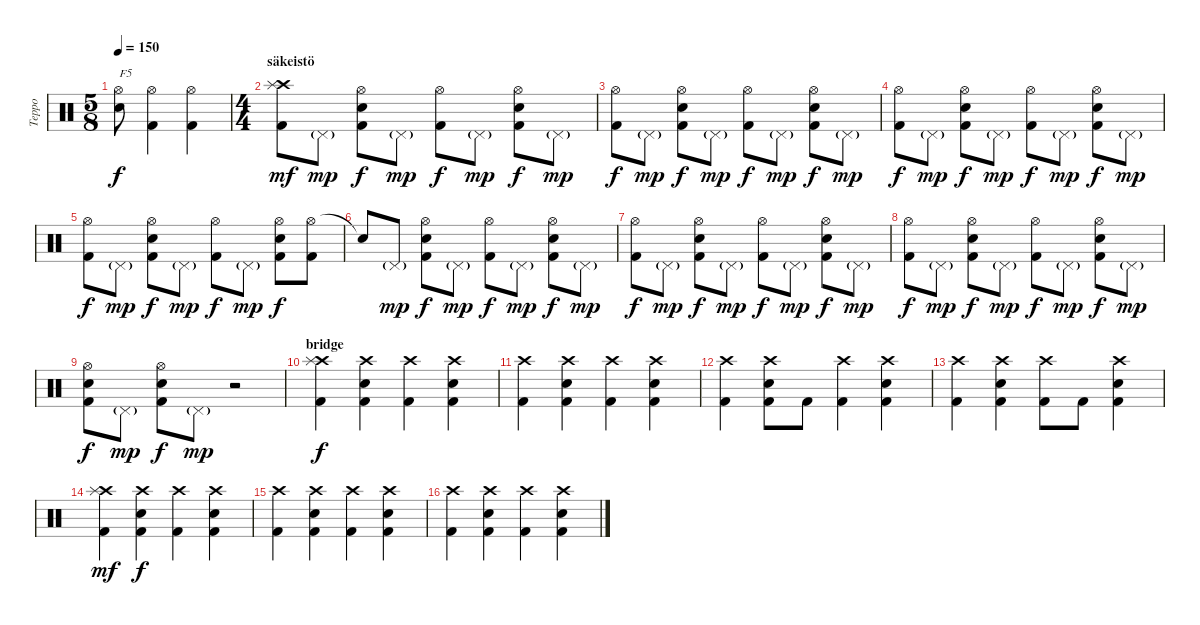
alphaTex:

\track ("Teppo" "Teppo") {instrument percussion}
\staff {score}
\articulation defaults
\ts (5 8)
\tempo 150
\clef neutral
\ks c
("Hi-Hat (open)" "Electric Snare (hit)").8{txt "F5" dy f} ("Hi-Hat (open)" "Kick (hit) 2").4 ("Hi-Hat (open)" "Kick (hit) 2").4 |
\ts (4 4)
\section ("" "säkeistö")
("Crash high (hit)" "Splash (hit)" "Kick (hit) 2").8{dy mf} "Pedal Hi-Hat (hit)"{g}.8{dy mp} ("Hi-Hat (open)" "Electric Snare (hit)" "Kick (hit) 2").8{dy f} "Pedal Hi-Hat (hit)"{g}.8{dy mp} ("Hi-Hat (open)" "Kick (hit) 2").8{dy f} "Pedal Hi-Hat (hit)"{g}.8{dy mp} ("Hi-Hat (open)" "Electric Snare (hit)" "Kick (hit) 2").8{dy f} "Pedal Hi-Hat (hit)"{g}.8{dy mp} |
("Hi-Hat (open)" "Kick (hit) 2").8{dy f} "Pedal Hi-Hat (hit)"{g}.8{dy mp} ("Hi-Hat (open)" "Electric Snare (hit)" "Kick (hit) 2").8{dy f} "Pedal Hi-Hat (hit)"{g}.8{dy mp} ("Hi-Hat (open)" "Kick (hit) 2").8{dy f} "Pedal Hi-Hat (hit)"{g}.8{dy mp} ("Hi-Hat (open)" "Electric Snare (hit)" "Kick (hit) 2").8{dy f} "Pedal Hi-Hat (hit)"{g}.8{dy mp} |
("Hi-Hat (open)" "Kick (hit) 2").8{dy f} "Pedal Hi-Hat (hit)"{g}.8{dy mp} ("Hi-Hat (open)" "Electric Snare (hit)" "Kick (hit) 2").8{dy f} "Pedal Hi-Hat (hit)"{g}.8{dy mp} ("Hi-Hat (open)" "Kick (hit) 2").8{dy f} "Pedal Hi-Hat (hit)"{g}.8{dy mp} ("Hi-Hat (open)" "Electric Snare (hit)" "Kick (hit) 2").8{dy f} "Pedal Hi-Hat (hit)"{g}.8{dy mp} |
("Hi-Hat (open)" "Kick (hit) 2").8{dy f} "Pedal Hi-Hat (hit)"{g}.8{dy mp} ("Hi-Hat (open)" "Electric Snare (hit)" "Kick (hit) 2").8{dy f} "Pedal Hi-Hat (hit)"{g}.8{dy mp} ("Hi-Hat (open)" "Kick (hit) 2").8{dy f} "Pedal Hi-Hat (hit)"{g}.8{dy mp} ("Hi-Hat (open)" "Electric Snare (hit)" "Kick (hit) 2").8{dy f} ("Hi-Hat (open)" "Kick (hit) 2").8 |
"Snare (hit)"{t}.8 "Pedal Hi-Hat (hit)"{g}.8{dy mp} ("Hi-Hat (open)" "Electric Snare (hit)" "Kick (hit) 2").8{dy f} "Pedal Hi-Hat (hit)"{g}.8{dy mp} ("Hi-Hat (open)" "Kick (hit) 2").8{dy f} "Pedal Hi-Hat (hit)"{g}.8{dy mp} ("Hi-Hat (open)" "Electric Snare (hit)" "Kick (hit) 2").8{dy f} "Pedal Hi-Hat (hit)"{g}.8{dy mp} |
("Hi-Hat (open)" "Kick (hit) 2").8{dy f} "Pedal Hi-Hat (hit)"{g}.8{dy mp} ("Hi-Hat (open)" "Electric Snare (hit)" "Kick (hit) 2").8{dy f} "Pedal Hi-Hat (hit)"{g}.8{dy mp} ("Hi-Hat (open)" "Kick (hit) 2").8{dy f} "Pedal Hi-Hat (hit)"{g}.8{dy mp} ("Hi-Hat (open)" "Electric Snare (hit)" "Kick (hit) 2").8{dy f} "Pedal Hi-Hat (hit)"{g}.8{dy mp} |
("Hi-Hat (open)" "Kick (hit) 2").8{dy f} "Pedal Hi-Hat (hit)"{g}.8{dy mp} ("Hi-Hat (open)" "Electric Snare (hit)" "Kick (hit) 2").8{dy f} "Pedal Hi-Hat (hit)"{g}.8{dy mp} ("Hi-Hat (open)" "Kick (hit) 2").8{dy f} "Pedal Hi-Hat (hit)"{g}.8{dy mp} ("Hi-Hat (open)" "Electric Snare (hit)" "Kick (hit) 2").8{dy f} "Pedal Hi-Hat (hit)"{g}.8{dy mp} |
("Hi-Hat (open)" "Electric Snare (hit)" "Kick (hit) 2").8{dy f} "Pedal Hi-Hat (hit)"{g}.8{dy mp} ("Hi-Hat (open)" "Electric Snare (hit)" "Kick (hit) 2").8{dy f} "Pedal Hi-Hat (hit)"{g}.8{dy mp} r.2 |
\section ("" "bridge")
("Crash high (hit)" "Splash (hit)" "Kick (hit) 2").4{dy f} ("Crash high (hit)" "Electric Snare (hit)" "Kick (hit) 2").4 ("Crash high (hit)" "Kick (hit) 2").4 ("Crash high (hit)" "Electric Snare (hit)" "Kick (hit) 2").4 |
("Crash high (hit)" "Kick (hit) 2").4 ("Crash high (hit)" "Electric Snare (hit)" "Kick (hit) 2").4 ("Crash high (hit)" "Kick (hit) 2").4 ("Crash high (hit)" "Electric Snare (hit)" "Kick (hit) 2").4 |
("Crash high (hit)" "Kick (hit) 2").4 ("Crash high (hit)" "Electric Snare (hit)" "Kick (hit) 2").8 "Kick (hit) 2".8 ("Crash high (hit)" "Kick (hit) 2").4 ("Crash high (hit)" "Electric Snare (hit)" "Kick (hit) 2").4 |
("Crash high (hit)" "Kick (hit) 2").4 ("Crash high (hit)" "Electric Snare (hit)" "Kick (hit) 2").4 ("Crash high (hit)" "Kick (hit) 2").8 "Kick (hit) 2".8 ("Crash high (hit)" "Electric Snare (hit)" "Kick (hit) 2").4 |
("Crash high (hit)" "Splash (hit)" "Kick (hit) 2").4{dy mf} ("Crash high (hit)" "Electric Snare (hit)" "Kick (hit) 2").4{dy f} ("Crash high (hit)" "Kick (hit) 2").4 ("Crash high (hit)" "Electric Snare (hit)" "Kick (hit) 2").4 |
("Crash high (hit)" "Kick (hit) 2").4 ("Crash high (hit)" "Electric Snare (hit)" "Kick (hit) 2").4 ("Crash high (hit)" "Kick (hit) 2").4 ("Crash high (hit)" "Electric Snare (hit)" "Kick (hit) 2").4 |
("Crash high (hit)" "Kick (hit) 2").4 ("Crash high (hit)" "Electric Snare (hit)" "Kick (hit) 2").4 ("Crash high (hit)" "Kick (hit) 2").4 ("Crash high (hit)" "Electric Snare (hit)" "Kick (hit) 2").4
